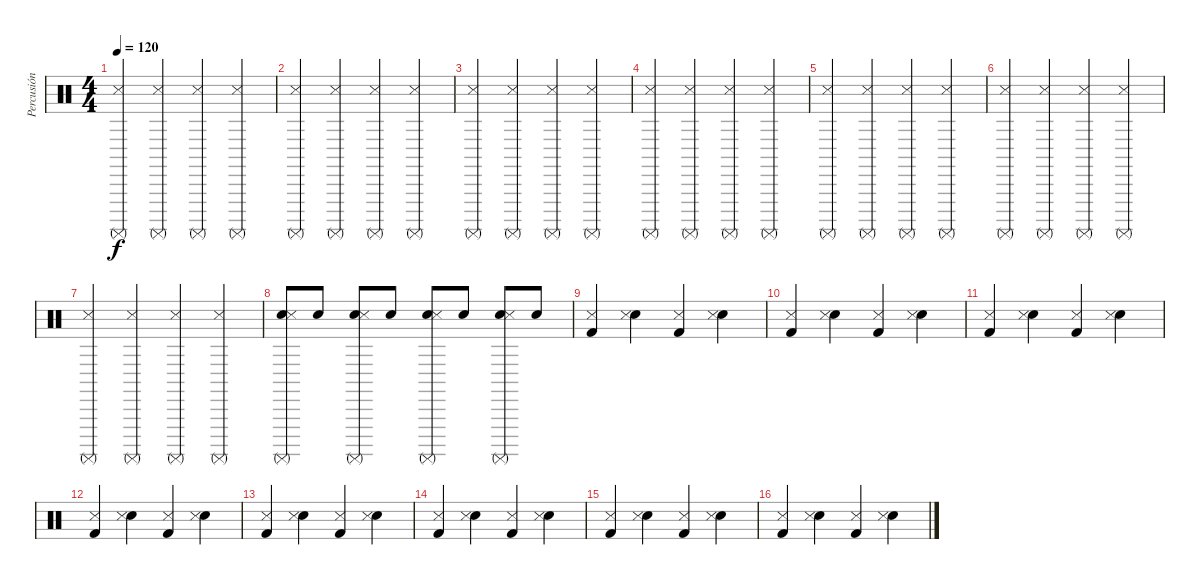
\track ("Percusión" "Percusión") {instrument percussion}
\staff {score}
\articulation defaults
\ts (4 4)
\tempo 120
\clef neutral
\ks c
("Surdo (mute)" "Metronome (hit)").4{dy f} ("Surdo (mute)" "Metronome (hit)").4 ("Surdo (mute)" "Metronome (hit)").4 ("Surdo (mute)" "Metronome (hit)").4 |
("Surdo (mute)" "Metronome (hit)").4 ("Surdo (mute)" "Metronome (hit)").4 ("Surdo (mute)" "Metronome (hit)").4 ("Surdo (mute)" "Metronome (hit)").4 |
("Surdo (mute)" "Metronome (hit)").4 ("Surdo (mute)" "Metronome (hit)").4 ("Surdo (mute)" "Metronome (hit)").4 ("Surdo (mute)" "Metronome (hit)").4 |
("Surdo (mute)" "Metronome (hit)").4 ("Surdo (mute)" "Metronome (hit)").4 ("Surdo (mute)" "Metronome (hit)").4 ("Surdo (mute)" "Metronome (hit)").4 |
("Surdo (mute)" "Metronome (hit)").4 ("Surdo (mute)" "Metronome (hit)").4 ("Surdo (mute)" "Metronome (hit)").4 ("Surdo (mute)" "Metronome (hit)").4 |
("Surdo (mute)" "Metronome (hit)").4 ("Surdo (mute)" "Metronome (hit)").4 ("Surdo (mute)" "Metronome (hit)").4 ("Surdo (mute)" "Metronome (hit)").4 |
("Surdo (mute)" "Metronome (hit)").4 ("Surdo (mute)" "Metronome (hit)").4 ("Surdo (mute)" "Metronome (hit)").4 ("Surdo (mute)" "Metronome (hit)").4 |
("Surdo (mute)" "Electric Snare (hit)" "Metronome (hit)").8{volume 16} "Electric Snare (hit)".8 ("Surdo (mute)" "Electric Snare (hit)" "Metronome (hit)").8 "Electric Snare (hit)".8 ("Surdo (mute)" "Electric Snare (hit)" "Metronome (hit)").8 "Electric Snare (hit)".8 ("Surdo (mute)" "Electric Snare (hit)" "Metronome (hit)").8 "Electric Snare (hit)".8 |
("Metronome (hit)" "Kick (hit) 2").4{volume 13} ("Electric Snare (hit)" "Metronome (hit)").4 ("Metronome (hit)" "Kick (hit) 2").4 ("Electric Snare (hit)" "Metronome (hit)").4 |
("Metronome (hit)" "Kick (hit) 2").4 ("Electric Snare (hit)" "Metronome (hit)").4 ("Metronome (hit)" "Kick (hit) 2").4 ("Electric Snare (hit)" "Metronome (hit)").4 |
("Metronome (hit)" "Kick (hit) 2").4 ("Electric Snare (hit)" "Metronome (hit)").4 ("Metronome (hit)" "Kick (hit) 2").4 ("Electric Snare (hit)" "Metronome (hit)").4 |
("Metronome (hit)" "Kick (hit) 2").4 ("Electric Snare (hit)" "Metronome (hit)").4 ("Metronome (hit)" "Kick (hit) 2").4 ("Electric Snare (hit)" "Metronome (hit)").4 |
("Metronome (hit)" "Kick (hit) 2").4 ("Electric Snare (hit)" "Metronome (hit)").4 ("Metronome (hit)" "Kick (hit) 2").4 ("Electric Snare (hit)" "Metronome (hit)").4 |
("Metronome (hit)" "Kick (hit) 2").4 ("Electric Snare (hit)" "Metronome (hit)").4 ("Metronome (hit)" "Kick (hit) 2").4 ("Electric Snare (hit)" "Metronome (hit)").4 |
("Metronome (hit)" "Kick (hit) 2").4 ("Electric Snare (hit)" "Metronome (hit)").4 ("Metronome (hit)" "Kick (hit) 2").4 ("Electric Snare (hit)" "Metronome (hit)").4 |
("Metronome (hit)" "Kick (hit) 2").4 ("Electric Snare (hit)" "Metronome (hit)").4 ("Metronome (hit)" "Kick (hit) 2").4 ("Electric Snare (hit)" "Metronome (hit)").4
